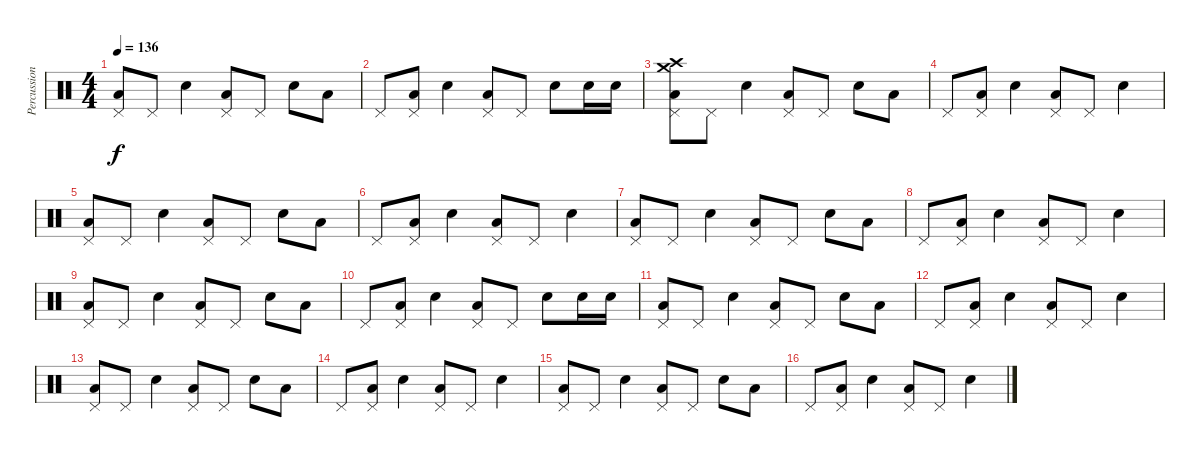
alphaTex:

\track ("Percussions" "Percussion") {instrument percussion}
\staff {score}
\articulation defaults
\ts (4 4)
\tempo 136
\clef neutral
\ks c
("Low Floor Tom (hit)" "Pedal Hi-Hat (hit)").8{dy f} "Pedal Hi-Hat (hit)".8 "Snare (hit) 2".4 ("Low Floor Tom (hit)" "Pedal Hi-Hat (hit)").8 "Pedal Hi-Hat (hit)".8 "Snare (hit) 2".8 "Low Floor Tom (hit)".8 |
"Pedal Hi-Hat (hit)".8 ("Low Floor Tom (hit)" "Pedal Hi-Hat (hit)").8 "Snare (hit) 2".4 ("Low Floor Tom (hit)" "Pedal Hi-Hat (hit)").8 "Pedal Hi-Hat (hit)".8 "Snare (hit) 2".8 "Snare (hit) 2".16 "Snare (hit) 2".16 |
("Low Floor Tom (hit)" "Pedal Hi-Hat (hit)" "Crash medium (hit)" "Crash high (hit)").8 "Pedal Hi-Hat (hit)".8 "Snare (hit) 2".4 ("Low Floor Tom (hit)" "Pedal Hi-Hat (hit)").8 "Pedal Hi-Hat (hit)".8 "Snare (hit) 2".8 "Low Floor Tom (hit)".8 |
"Pedal Hi-Hat (hit)".8 ("Low Floor Tom (hit)" "Pedal Hi-Hat (hit)").8 "Snare (hit) 2".4 ("Low Floor Tom (hit)" "Pedal Hi-Hat (hit)").8 "Pedal Hi-Hat (hit)".8 "Snare (hit) 2".4 |
("Low Floor Tom (hit)" "Pedal Hi-Hat (hit)").8 "Pedal Hi-Hat (hit)".8 "Snare (hit) 2".4 ("Low Floor Tom (hit)" "Pedal Hi-Hat (hit)").8 "Pedal Hi-Hat (hit)".8 "Snare (hit) 2".8 "Low Floor Tom (hit)".8 |
"Pedal Hi-Hat (hit)".8 ("Low Floor Tom (hit)" "Pedal Hi-Hat (hit)").8 "Snare (hit) 2".4 ("Low Floor Tom (hit)" "Pedal Hi-Hat (hit)").8 "Pedal Hi-Hat (hit)".8 "Snare (hit) 2".4 |
("Low Floor Tom (hit)" "Pedal Hi-Hat (hit)").8 "Pedal Hi-Hat (hit)".8 "Snare (hit) 2".4 ("Low Floor Tom (hit)" "Pedal Hi-Hat (hit)").8 "Pedal Hi-Hat (hit)".8 "Snare (hit) 2".8 "Low Floor Tom (hit)".8 |
"Pedal Hi-Hat (hit)".8 ("Low Floor Tom (hit)" "Pedal Hi-Hat (hit)").8 "Snare (hit) 2".4 ("Low Floor Tom (hit)" "Pedal Hi-Hat (hit)").8 "Pedal Hi-Hat (hit)".8 "Snare (hit) 2".4 |
("Low Floor Tom (hit)" "Pedal Hi-Hat (hit)").8 "Pedal Hi-Hat (hit)".8 "Snare (hit) 2".4 ("Low Floor Tom (hit)" "Pedal Hi-Hat (hit)").8 "Pedal Hi-Hat (hit)".8 "Snare (hit) 2".8 "Low Floor Tom (hit)".8 |
"Pedal Hi-Hat (hit)".8 ("Low Floor Tom (hit)" "Pedal Hi-Hat (hit)").8 "Snare (hit) 2".4 ("Low Floor Tom (hit)" "Pedal Hi-Hat (hit)").8 "Pedal Hi-Hat (hit)".8 "Snare (hit) 2".8 "Snare (hit) 2".16 "Snare (hit) 2".16 |
("Low Floor Tom (hit)" "Pedal Hi-Hat (hit)").8 "Pedal Hi-Hat (hit)".8 "Snare (hit) 2".4 ("Low Floor Tom (hit)" "Pedal Hi-Hat (hit)").8 "Pedal Hi-Hat (hit)".8 "Snare (hit) 2".8 "Low Floor Tom (hit)".8 |
"Pedal Hi-Hat (hit)".8 ("Low Floor Tom (hit)" "Pedal Hi-Hat (hit)").8 "Snare (hit) 2".4 ("Low Floor Tom (hit)" "Pedal Hi-Hat (hit)").8 "Pedal Hi-Hat (hit)".8 "Snare (hit) 2".4 |
("Low Floor Tom (hit)" "Pedal Hi-Hat (hit)").8 "Pedal Hi-Hat (hit)".8 "Snare (hit) 2".4 ("Low Floor Tom (hit)" "Pedal Hi-Hat (hit)").8 "Pedal Hi-Hat (hit)".8 "Snare (hit) 2".8 "Low Floor Tom (hit)".8 |
"Pedal Hi-Hat (hit)".8 ("Low Floor Tom (hit)" "Pedal Hi-Hat (hit)").8 "Snare (hit) 2".4 ("Low Floor Tom (hit)" "Pedal Hi-Hat (hit)").8 "Pedal Hi-Hat (hit)".8 "Snare (hit) 2".4 |
("Low Floor Tom (hit)" "Pedal Hi-Hat (hit)").8 "Pedal Hi-Hat (hit)".8 "Snare (hit) 2".4 ("Low Floor Tom (hit)" "Pedal Hi-Hat (hit)").8 "Pedal Hi-Hat (hit)".8 "Snare (hit) 2".8 "Low Floor Tom (hit)".8 |
"Pedal Hi-Hat (hit)".8 ("Low Floor Tom (hit)" "Pedal Hi-Hat (hit)").8 "Snare (hit) 2".4 ("Low Floor Tom (hit)" "Pedal Hi-Hat (hit)").8 "Pedal Hi-Hat (hit)".8 "Snare (hit) 2".4
